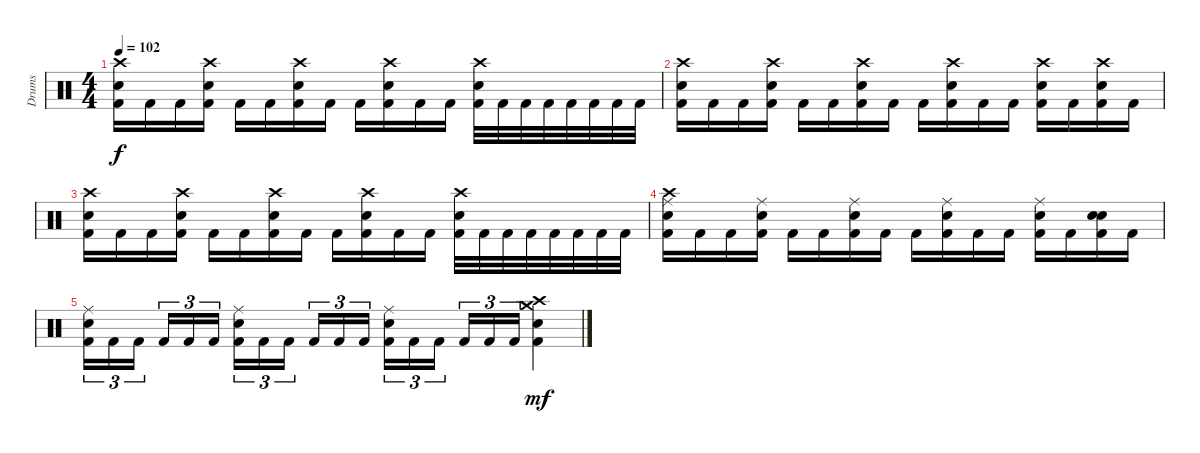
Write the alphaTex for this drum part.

\track ("Drums" "Drums") {instrument percussion}
\staff {score}
\articulation defaults
\ts (4 4)
\tempo 102
\clef neutral
\ks c
("Crash high (hit)" "Snare (hit) 2" "Kick (hit) 2").16{dy f} "Kick (hit) 2".16 "Kick (hit) 2".16 ("Crash high (hit)" "Snare (hit) 2" "Kick (hit) 2").16 "Kick (hit) 2".16 "Kick (hit) 2".16 ("Crash high (hit)" "Snare (hit) 2" "Kick (hit) 2").16 "Kick (hit) 2".16 "Kick (hit) 2".16 ("Crash high (hit)" "Snare (hit) 2" "Kick (hit) 2").16 "Kick (hit) 2".16 "Kick (hit) 2".16 ("Crash high (hit)" "Snare (hit) 2" "Kick (hit) 2").32 "Kick (hit) 2".32 "Kick (hit) 2".32 "Kick (hit) 2".32 "Kick (hit) 2".32 "Kick (hit) 2".32 "Kick (hit) 2".32 "Kick (hit) 2".32 |
("Crash high (hit)" "Snare (hit) 2" "Kick (hit) 2").16 "Kick (hit) 2".16 "Kick (hit) 2".16 ("Crash high (hit)" "Snare (hit) 2" "Kick (hit) 2").16 "Kick (hit) 2".16 "Kick (hit) 2".16 ("Crash high (hit)" "Snare (hit) 2" "Kick (hit) 2").16 "Kick (hit) 2".16 "Kick (hit) 2".16 ("Crash high (hit)" "Snare (hit) 2" "Kick (hit) 2").16 "Kick (hit) 2".16 "Kick (hit) 2".16 ("Crash high (hit)" "Snare (hit) 2" "Kick (hit) 2").16 "Kick (hit) 2".16 ("Crash high (hit)" "Snare (hit) 2" "Kick (hit) 2").16 "Kick (hit) 2".16 |
("Crash high (hit)" "Snare (hit) 2" "Kick (hit) 2").16 "Kick (hit) 2".16 "Kick (hit) 2".16 ("Crash high (hit)" "Snare (hit) 2" "Kick (hit) 2").16 "Kick (hit) 2".16 "Kick (hit) 2".16 ("Crash high (hit)" "Snare (hit) 2" "Kick (hit) 2").16 "Kick (hit) 2".16 "Kick (hit) 2".16 ("Crash high (hit)" "Snare (hit) 2" "Kick (hit) 2").16 "Kick (hit) 2".16 "Kick (hit) 2".16 ("Crash high (hit)" "Snare (hit) 2" "Kick (hit) 2").32 "Kick (hit) 2".32 "Kick (hit) 2".32 "Kick (hit) 2".32 "Kick (hit) 2".32 "Kick (hit) 2".32 "Kick (hit) 2".32 "Kick (hit) 2".32 |
("Ride (middle)" "Crash high (hit)" "Snare (hit) 2" "Kick (hit) 2").16 "Kick (hit) 2".16 "Kick (hit) 2".16 ("Ride (middle)" "Snare (hit) 2" "Kick (hit) 2").16 "Kick (hit) 2".16 "Kick (hit) 2".16 ("Ride (middle)" "Snare (hit) 2" "Kick (hit) 2").16 "Kick (hit) 2".16 "Kick (hit) 2".16 ("Ride (middle)" "Snare (hit) 2" "Kick (hit) 2").16 "Kick (hit) 2".16 "Kick (hit) 2".16 ("Ride (middle)" "Snare (hit) 2" "Kick (hit) 2").16 "Kick (hit) 2".16 ("Snare (hit)" "Snare (hit) 2" "Kick (hit) 2").16 "Kick (hit) 2".16 |
("Ride (middle)" "Snare (hit) 2" "Kick (hit) 2").16{tu (3 2)} "Kick (hit) 2".16{tu (3 2)} "Kick (hit) 2".16{tu (3 2) beam splitsecondary} "Kick (hit) 2".16{tu (3 2)} "Kick (hit) 2".16{tu (3 2)} "Kick (hit) 2".16{tu (3 2)} ("Ride (middle)" "Snare (hit) 2" "Kick (hit) 2").16{tu (3 2)} "Kick (hit) 2".16{tu (3 2)} "Kick (hit) 2".16{tu (3 2) beam splitsecondary} "Kick (hit) 2".16{tu (3 2)} "Kick (hit) 2".16{tu (3 2)} "Kick (hit) 2".16{tu (3 2)} ("Ride (middle)" "Snare (hit) 2" "Kick (hit) 2").16{tu (3 2)} "Kick (hit) 2".16{tu (3 2)} "Kick (hit) 2".16{tu (3 2) beam splitsecondary} "Kick (hit) 2".16{tu (3 2)} "Kick (hit) 2".16{tu (3 2)} "Kick (hit) 2".16{tu (3 2)} ("Crash medium (hit)" "Crash high (hit)" "Snare (hit) 2" "Kick (hit) 2").4{dy mf}
